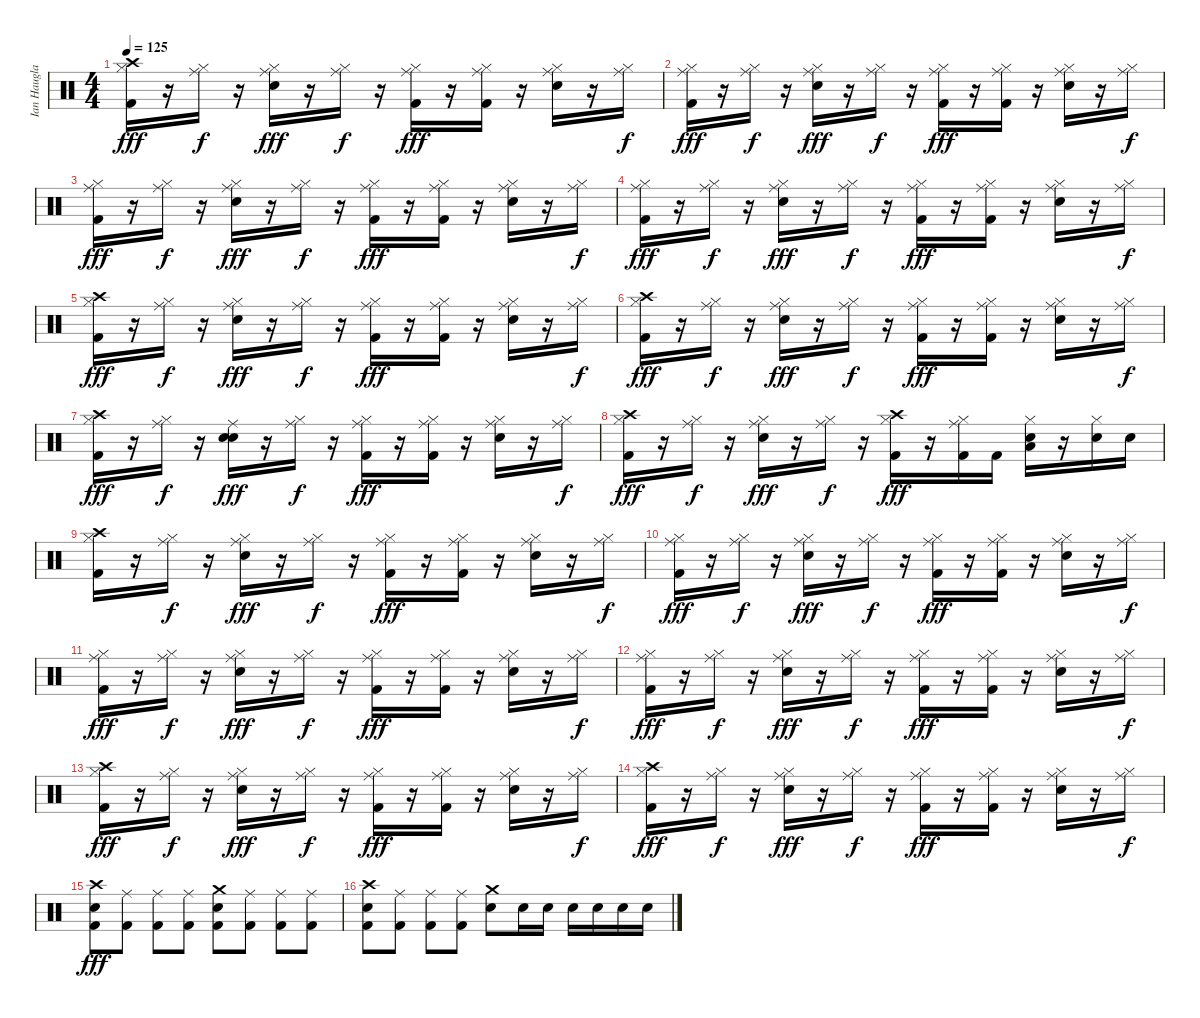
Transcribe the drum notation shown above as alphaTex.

\track ("Ian Haugland" "Ian Haugla") {instrument percussion}
\staff {score}
\articulation defaults
\ts (4 4)
\tempo 125
\clef neutral
\ks c
("Crash high (hit)" "Hi-Hat (closed)" "Kick (hit) 2").16{dy fff} r.16 ("Ride (middle)" "Hi-Hat (closed)").16{dy f} r.16 ("Ride (middle)" "Hi-Hat (closed)" "Electric Snare (hit)").16{dy fff} r.16 ("Ride (middle)" "Hi-Hat (closed)").16{dy f} r.16 ("Ride (middle)" "Hi-Hat (closed)" "Kick (hit) 2").16{dy fff} r.16 ("Ride (middle)" "Hi-Hat (closed)" "Kick (hit) 2").16 r.16 ("Ride (middle)" "Hi-Hat (closed)" "Electric Snare (hit)").16 r.16 ("Ride (middle)" "Hi-Hat (closed)").16{dy f} |
("Ride (middle)" "Hi-Hat (closed)" "Kick (hit) 2").16{dy fff} r.16 ("Ride (middle)" "Hi-Hat (closed)").16{dy f} r.16 ("Ride (middle)" "Hi-Hat (closed)" "Electric Snare (hit)").16{dy fff} r.16 ("Ride (middle)" "Hi-Hat (closed)").16{dy f} r.16 ("Ride (middle)" "Hi-Hat (closed)" "Kick (hit) 2").16{dy fff} r.16 ("Ride (middle)" "Hi-Hat (closed)" "Kick (hit) 2").16 r.16 ("Ride (middle)" "Hi-Hat (closed)" "Electric Snare (hit)").16 r.16 ("Ride (middle)" "Hi-Hat (closed)").16{dy f} |
("Ride (middle)" "Hi-Hat (closed)" "Kick (hit) 2").16{dy fff} r.16 ("Ride (middle)" "Hi-Hat (closed)").16{dy f} r.16 ("Ride (middle)" "Hi-Hat (closed)" "Electric Snare (hit)").16{dy fff} r.16 ("Ride (middle)" "Hi-Hat (closed)").16{dy f} r.16 ("Ride (middle)" "Hi-Hat (closed)" "Kick (hit) 2").16{dy fff} r.16 ("Ride (middle)" "Hi-Hat (closed)" "Kick (hit) 2").16 r.16 ("Ride (middle)" "Hi-Hat (closed)" "Electric Snare (hit)").16 r.16 ("Ride (middle)" "Hi-Hat (closed)").16{dy f} |
("Ride (middle)" "Hi-Hat (closed)" "Kick (hit) 2").16{dy fff} r.16 ("Ride (middle)" "Hi-Hat (closed)").16{dy f} r.16 ("Ride (middle)" "Hi-Hat (closed)" "Electric Snare (hit)").16{dy fff} r.16 ("Ride (middle)" "Hi-Hat (closed)").16{dy f} r.16 ("Ride (middle)" "Hi-Hat (closed)" "Kick (hit) 2").16{dy fff} r.16 ("Ride (middle)" "Hi-Hat (closed)" "Kick (hit) 2").16 r.16 ("Ride (middle)" "Hi-Hat (closed)" "Electric Snare (hit)").16 r.16 ("Ride (middle)" "Hi-Hat (closed)").16{dy f} |
("Crash high (hit)" "Hi-Hat (closed)" "Kick (hit) 2").16{dy fff} r.16 ("Ride (middle)" "Hi-Hat (closed)").16{dy f} r.16 ("Ride (middle)" "Hi-Hat (closed)" "Electric Snare (hit)").16{dy fff} r.16 ("Ride (middle)" "Hi-Hat (closed)").16{dy f} r.16 ("Ride (middle)" "Hi-Hat (closed)" "Kick (hit) 2").16{dy fff} r.16 ("Ride (middle)" "Hi-Hat (closed)" "Kick (hit) 2").16 r.16 ("Ride (middle)" "Hi-Hat (closed)" "Electric Snare (hit)").16 r.16 ("Ride (middle)" "Hi-Hat (closed)").16{dy f} |
("Crash high (hit)" "Hi-Hat (closed)" "Kick (hit) 2").16{dy fff} r.16 ("Ride (middle)" "Hi-Hat (closed)").16{dy f} r.16 ("Ride (middle)" "Hi-Hat (closed)" "Electric Snare (hit)").16{dy fff} r.16 ("Ride (middle)" "Hi-Hat (closed)").16{dy f} r.16 ("Ride (middle)" "Hi-Hat (closed)" "Kick (hit) 2").16{dy fff} r.16 ("Ride (middle)" "Hi-Hat (closed)" "Kick (hit) 2").16 r.16 ("Ride (middle)" "Hi-Hat (closed)" "Electric Snare (hit)").16 r.16 ("Ride (middle)" "Hi-Hat (closed)").16{dy f} |
("Crash high (hit)" "Hi-Hat (closed)" "Kick (hit) 2").16{dy fff} r.16 ("Ride (middle)" "Hi-Hat (closed)").16{dy f} r.16 ("Ride (middle)" "Snare (hit)" "Electric Snare (hit)").16{dy fff} r.16 ("Ride (middle)" "Hi-Hat (closed)").16{dy f} r.16 ("Ride (middle)" "Hi-Hat (closed)" "Kick (hit) 2").16{dy fff} r.16 ("Ride (middle)" "Hi-Hat (closed)" "Kick (hit) 2").16 r.16 ("Ride (middle)" "Hi-Hat (closed)" "Electric Snare (hit)").16 r.16 ("Ride (middle)" "Hi-Hat (closed)").16{dy f} |
("Crash high (hit)" "Hi-Hat (closed)" "Kick (hit) 2").16{dy fff} r.16 ("Ride (middle)" "Hi-Hat (closed)").16{dy f} r.16 ("Ride (middle)" "Hi-Hat (closed)" "Electric Snare (hit)").16{dy fff} r.16 ("Ride (middle)" "Hi-Hat (closed)").16{dy f} r.16 ("Crash high (hit)" "Hi-Hat (closed)" "Kick (hit) 2").16{dy fff} r.16 ("Ride (middle)" "Hi-Hat (closed)" "Kick (hit) 2").16 "Kick (hit) 2".16 ("Hi-Hat (closed)" "Low Floor Tom (hit)" "Electric Snare (hit)").16 r.16 ("Hi-Hat (closed)" "Electric Snare (hit)").16 "Electric Snare (hit)".16 |
("Crash high (hit)" "Hi-Hat (closed)" "Kick (hit) 2").16 r.16 ("Ride (middle)" "Hi-Hat (closed)").16{dy f} r.16 ("Ride (middle)" "Hi-Hat (closed)" "Electric Snare (hit)").16{dy fff} r.16 ("Ride (middle)" "Hi-Hat (closed)").16{dy f} r.16 ("Ride (middle)" "Hi-Hat (closed)" "Kick (hit) 2").16{dy fff} r.16 ("Ride (middle)" "Hi-Hat (closed)" "Kick (hit) 2").16 r.16 ("Ride (middle)" "Hi-Hat (closed)" "Electric Snare (hit)").16 r.16 ("Ride (middle)" "Hi-Hat (closed)").16{dy f} |
("Ride (middle)" "Hi-Hat (closed)" "Kick (hit) 2").16{dy fff} r.16 ("Ride (middle)" "Hi-Hat (closed)").16{dy f} r.16 ("Ride (middle)" "Hi-Hat (closed)" "Electric Snare (hit)").16{dy fff} r.16 ("Ride (middle)" "Hi-Hat (closed)").16{dy f} r.16 ("Ride (middle)" "Hi-Hat (closed)" "Kick (hit) 2").16{dy fff} r.16 ("Ride (middle)" "Hi-Hat (closed)" "Kick (hit) 2").16 r.16 ("Ride (middle)" "Hi-Hat (closed)" "Electric Snare (hit)").16 r.16 ("Ride (middle)" "Hi-Hat (closed)").16{dy f} |
("Ride (middle)" "Hi-Hat (closed)" "Kick (hit) 2").16{dy fff} r.16 ("Ride (middle)" "Hi-Hat (closed)").16{dy f} r.16 ("Ride (middle)" "Hi-Hat (closed)" "Electric Snare (hit)").16{dy fff} r.16 ("Ride (middle)" "Hi-Hat (closed)").16{dy f} r.16 ("Ride (middle)" "Hi-Hat (closed)" "Kick (hit) 2").16{dy fff} r.16 ("Ride (middle)" "Hi-Hat (closed)" "Kick (hit) 2").16 r.16 ("Ride (middle)" "Hi-Hat (closed)" "Electric Snare (hit)").16 r.16 ("Ride (middle)" "Hi-Hat (closed)").16{dy f} |
("Ride (middle)" "Hi-Hat (closed)" "Kick (hit) 2").16{dy fff} r.16 ("Ride (middle)" "Hi-Hat (closed)").16{dy f} r.16 ("Ride (middle)" "Hi-Hat (closed)" "Electric Snare (hit)").16{dy fff} r.16 ("Ride (middle)" "Hi-Hat (closed)").16{dy f} r.16 ("Ride (middle)" "Hi-Hat (closed)" "Kick (hit) 2").16{dy fff} r.16 ("Ride (middle)" "Hi-Hat (closed)" "Kick (hit) 2").16 r.16 ("Ride (middle)" "Hi-Hat (closed)" "Electric Snare (hit)").16 r.16 ("Ride (middle)" "Hi-Hat (closed)").16{dy f} |
("Crash high (hit)" "Hi-Hat (closed)" "Kick (hit) 2").16{dy fff} r.16 ("Ride (middle)" "Hi-Hat (closed)").16{dy f} r.16 ("Ride (middle)" "Hi-Hat (closed)" "Electric Snare (hit)").16{dy fff} r.16 ("Ride (middle)" "Hi-Hat (closed)").16{dy f} r.16 ("Ride (middle)" "Hi-Hat (closed)" "Kick (hit) 2").16{dy fff} r.16 ("Ride (middle)" "Hi-Hat (closed)" "Kick (hit) 2").16 r.16 ("Ride (middle)" "Hi-Hat (closed)" "Electric Snare (hit)").16 r.16 ("Ride (middle)" "Hi-Hat (closed)").16{dy f} |
("Crash high (hit)" "Hi-Hat (closed)" "Kick (hit) 2").16{dy fff} r.16 ("Ride (middle)" "Hi-Hat (closed)").16{dy f} r.16 ("Ride (middle)" "Hi-Hat (closed)" "Electric Snare (hit)").16{dy fff} r.16 ("Ride (middle)" "Hi-Hat (closed)").16{dy f} r.16 ("Ride (middle)" "Hi-Hat (closed)" "Kick (hit) 2").16{dy fff} r.16 ("Ride (middle)" "Hi-Hat (closed)" "Kick (hit) 2").16 r.16 ("Ride (middle)" "Hi-Hat (closed)" "Electric Snare (hit)").16 r.16 ("Ride (middle)" "Hi-Hat (closed)").16{dy f} |
("Crash high (hit)" "Electric Snare (hit)" "Kick (hit) 2").8{dy fff} ("Ride (middle)" "Kick (hit) 2").8 ("Ride (middle)" "Kick (hit) 2").8 ("Ride (middle)" "Kick (hit) 2").8 ("Crash medium (hit)" "Electric Snare (hit)" "Kick (hit) 2").8 ("Ride (middle)" "Kick (hit) 2").8 ("Ride (middle)" "Kick (hit) 2").8 ("Ride (middle)" "Kick (hit) 2").8 |
("Crash high (hit)" "Electric Snare (hit)" "Kick (hit) 2").8 ("Ride (middle)" "Kick (hit) 2").8 ("Ride (middle)" "Kick (hit) 2").8 ("Ride (middle)" "Kick (hit) 2").8 ("Crash medium (hit)" "Electric Snare (hit)").8 "Electric Snare (hit)".16 "Electric Snare (hit)".16 "Electric Snare (hit)".16 "Electric Snare (hit)".16 "Electric Snare (hit)".16 "Electric Snare (hit)".16
